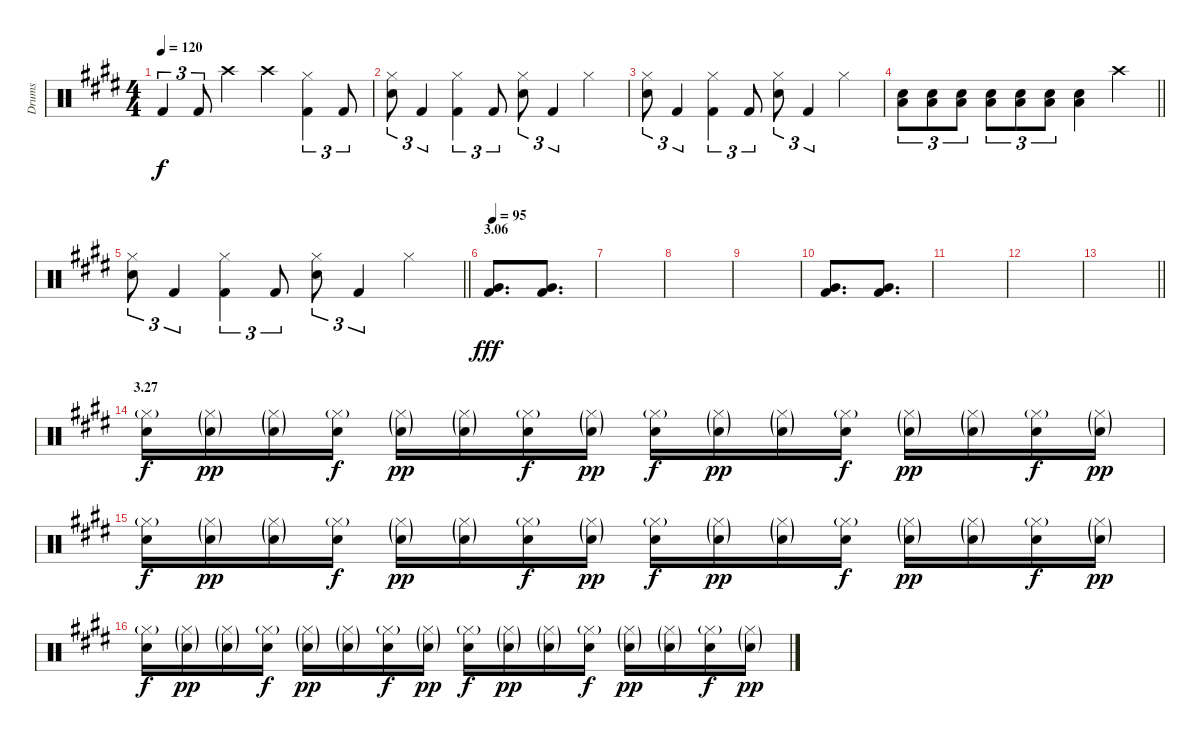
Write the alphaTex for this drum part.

\track ("Drums" "Drums") {instrument percussion}
\staff {score}
\articulation defaults
\ts (4 4)
\tempo 120
\clef neutral
\ks c#minor "Kick (hit) 2".4{tu (3 2) dy f} "Kick (hit) 2".8{tu (3 2)} "Crash high (hit)".4 "Crash high (hit)".4
("Hi-Hat (closed)" "Kick (hit) 2").4{tu (3 2)} "Kick (hit) 2".8{tu (3 2)} |
("Hi-Hat (closed)" "Electric Snare (hit)").8{tu (3 2)} "Kick (hit) 2".4{tu (3 2)} ("Hi-Hat (closed)" "Kick (hit) 2").4{tu (3 2)} "Kick (hit) 2".8{tu (3 2)} ("Hi-Hat (closed)" "Electric Snare (hit)").8{tu (3 2)} "Kick (hit) 2".4{tu (3 2)} "Hi-Hat (closed)".4 |
("Hi-Hat (closed)" "Electric Snare (hit)").8{tu (3 2)} "Kick (hit) 2".4{tu (3 2)} ("Hi-Hat (closed)" "Kick (hit) 2").4{tu (3 2)} "Kick (hit) 2".8{tu (3 2)} ("Hi-Hat (closed)" "Electric Snare (hit)").8{tu (3 2)} "Kick (hit) 2".4{tu (3 2)} "Hi-Hat (closed)".4 |
\barLineRight lightlight
("Electric Snare (hit)" "Low Tom (hit)").8{tu (3 2)} ("Electric Snare (hit)" "Low Tom (hit)").8{tu (3 2)} ("Electric Snare (hit)" "Low Tom (hit)").8{tu (3 2)} ("Electric Snare (hit)" "Low Tom (hit)").8{tu (3 2)} ("Electric Snare (hit)" "Low Tom (hit)").8{tu (3 2)} ("Electric Snare (hit)" "Low Tom (hit)").8{tu (3 2)} ("Electric Snare (hit)" "Low Tom (hit)").4 "Crash high (hit)".4 |
\barLineRight lightlight
("Hi-Hat (closed)" "Electric Snare (hit)").8{tu (3 2)} "Kick (hit) 2".4{tu (3 2)} ("Hi-Hat (closed)" "Kick (hit) 2").4{tu (3 2)} "Kick (hit) 2".8{tu (3 2)} ("Hi-Hat (closed)" "Electric Snare (hit)").8{tu (3 2)} "Kick (hit) 2".4{tu (3 2)} "Hi-Hat (closed)".4 |
\section ("" "3.06")
\tempo 95
("Very Low Tom (hit)" "Kick (hit) 2").8{d dy fff} ("Very Low Tom (hit)" "Kick (hit) 2").8{d} |
|
|
|
("Very Low Tom (hit)" "Kick (hit) 2").8{d} ("Very Low Tom (hit)" "Kick (hit) 2").8{d} |
|
|
\barLineRight lightlight
|
\section ("" "3.27")
("Hi-Hat (closed)"{g} "Snare (hit) 2").16{dy f} ("Hi-Hat (closed)"{g} "Snare (hit) 2"{g}).16{dy pp} ("Hi-Hat (closed)"{g} "Snare (hit) 2"{g}).16 ("Hi-Hat (closed)"{g} "Snare (hit) 2").16{dy f} ("Hi-Hat (closed)"{g} "Snare (hit) 2"{g}).16{dy pp} ("Hi-Hat (closed)"{g} "Snare (hit) 2"{g}).16 ("Hi-Hat (closed)"{g} "Snare (hit) 2").16{dy f} ("Hi-Hat (closed)"{g} "Snare (hit) 2"{g}).16{dy pp} ("Hi-Hat (closed)"{g} "Snare (hit) 2").16{dy f} ("Hi-Hat (closed)"{g} "Snare (hit) 2"{g}).16{dy pp} ("Hi-Hat (closed)"{g} "Snare (hit) 2"{g}).16 ("Hi-Hat (closed)"{g} "Snare (hit) 2").16{dy f} ("Hi-Hat (closed)"{g} "Snare (hit) 2"{g}).16{dy pp} ("Hi-Hat (closed)"{g} "Snare (hit) 2"{g}).16 ("Hi-Hat (closed)"{g} "Snare (hit) 2").16{dy f} ("Hi-Hat (closed)"{g} "Snare (hit) 2"{g}).16{dy pp} |
("Hi-Hat (closed)"{g} "Snare (hit) 2").16{dy f} ("Hi-Hat (closed)"{g} "Snare (hit) 2"{g}).16{dy pp} ("Hi-Hat (closed)"{g} "Snare (hit) 2"{g}).16 ("Hi-Hat (closed)"{g} "Snare (hit) 2").16{dy f} ("Hi-Hat (closed)"{g} "Snare (hit) 2"{g}).16{dy pp} ("Hi-Hat (closed)"{g} "Snare (hit) 2"{g}).16 ("Hi-Hat (closed)"{g} "Snare (hit) 2").16{dy f} ("Hi-Hat (closed)"{g} "Snare (hit) 2"{g}).16{dy pp} ("Hi-Hat (closed)"{g} "Snare (hit) 2").16{dy f} ("Hi-Hat (closed)"{g} "Snare (hit) 2"{g}).16{dy pp} ("Hi-Hat (closed)"{g} "Snare (hit) 2"{g}).16 ("Hi-Hat (closed)"{g} "Snare (hit) 2").16{dy f} ("Hi-Hat (closed)"{g} "Snare (hit) 2"{g}).16{dy pp} ("Hi-Hat (closed)"{g} "Snare (hit) 2"{g}).16 ("Hi-Hat (closed)"{g} "Snare (hit) 2").16{dy f} ("Hi-Hat (closed)"{g} "Snare (hit) 2"{g}).16{dy pp} |
("Hi-Hat (closed)"{g} "Snare (hit) 2").16{dy f} ("Hi-Hat (closed)"{g} "Snare (hit) 2"{g}).16{dy pp} ("Hi-Hat (closed)"{g} "Snare (hit) 2"{g}).16 ("Hi-Hat (closed)"{g} "Snare (hit) 2").16{dy f} ("Hi-Hat (closed)"{g} "Snare (hit) 2"{g}).16{dy pp} ("Hi-Hat (closed)"{g} "Snare (hit) 2"{g}).16 ("Hi-Hat (closed)"{g} "Snare (hit) 2").16{dy f} ("Hi-Hat (closed)"{g} "Snare (hit) 2"{g}).16{dy pp} ("Hi-Hat (closed)"{g} "Snare (hit) 2").16{dy f} ("Hi-Hat (closed)"{g} "Snare (hit) 2"{g}).16{dy pp} ("Hi-Hat (closed)"{g} "Snare (hit) 2"{g}).16 ("Hi-Hat (closed)"{g} "Snare (hit) 2").16{dy f} ("Hi-Hat (closed)"{g} "Snare (hit) 2"{g}).16{dy pp} ("Hi-Hat (closed)"{g} "Snare (hit) 2"{g}).16 ("Hi-Hat (closed)"{g} "Snare (hit) 2").16{dy f} ("Hi-Hat (closed)"{g} "Snare (hit) 2"{g}).16{dy pp}
